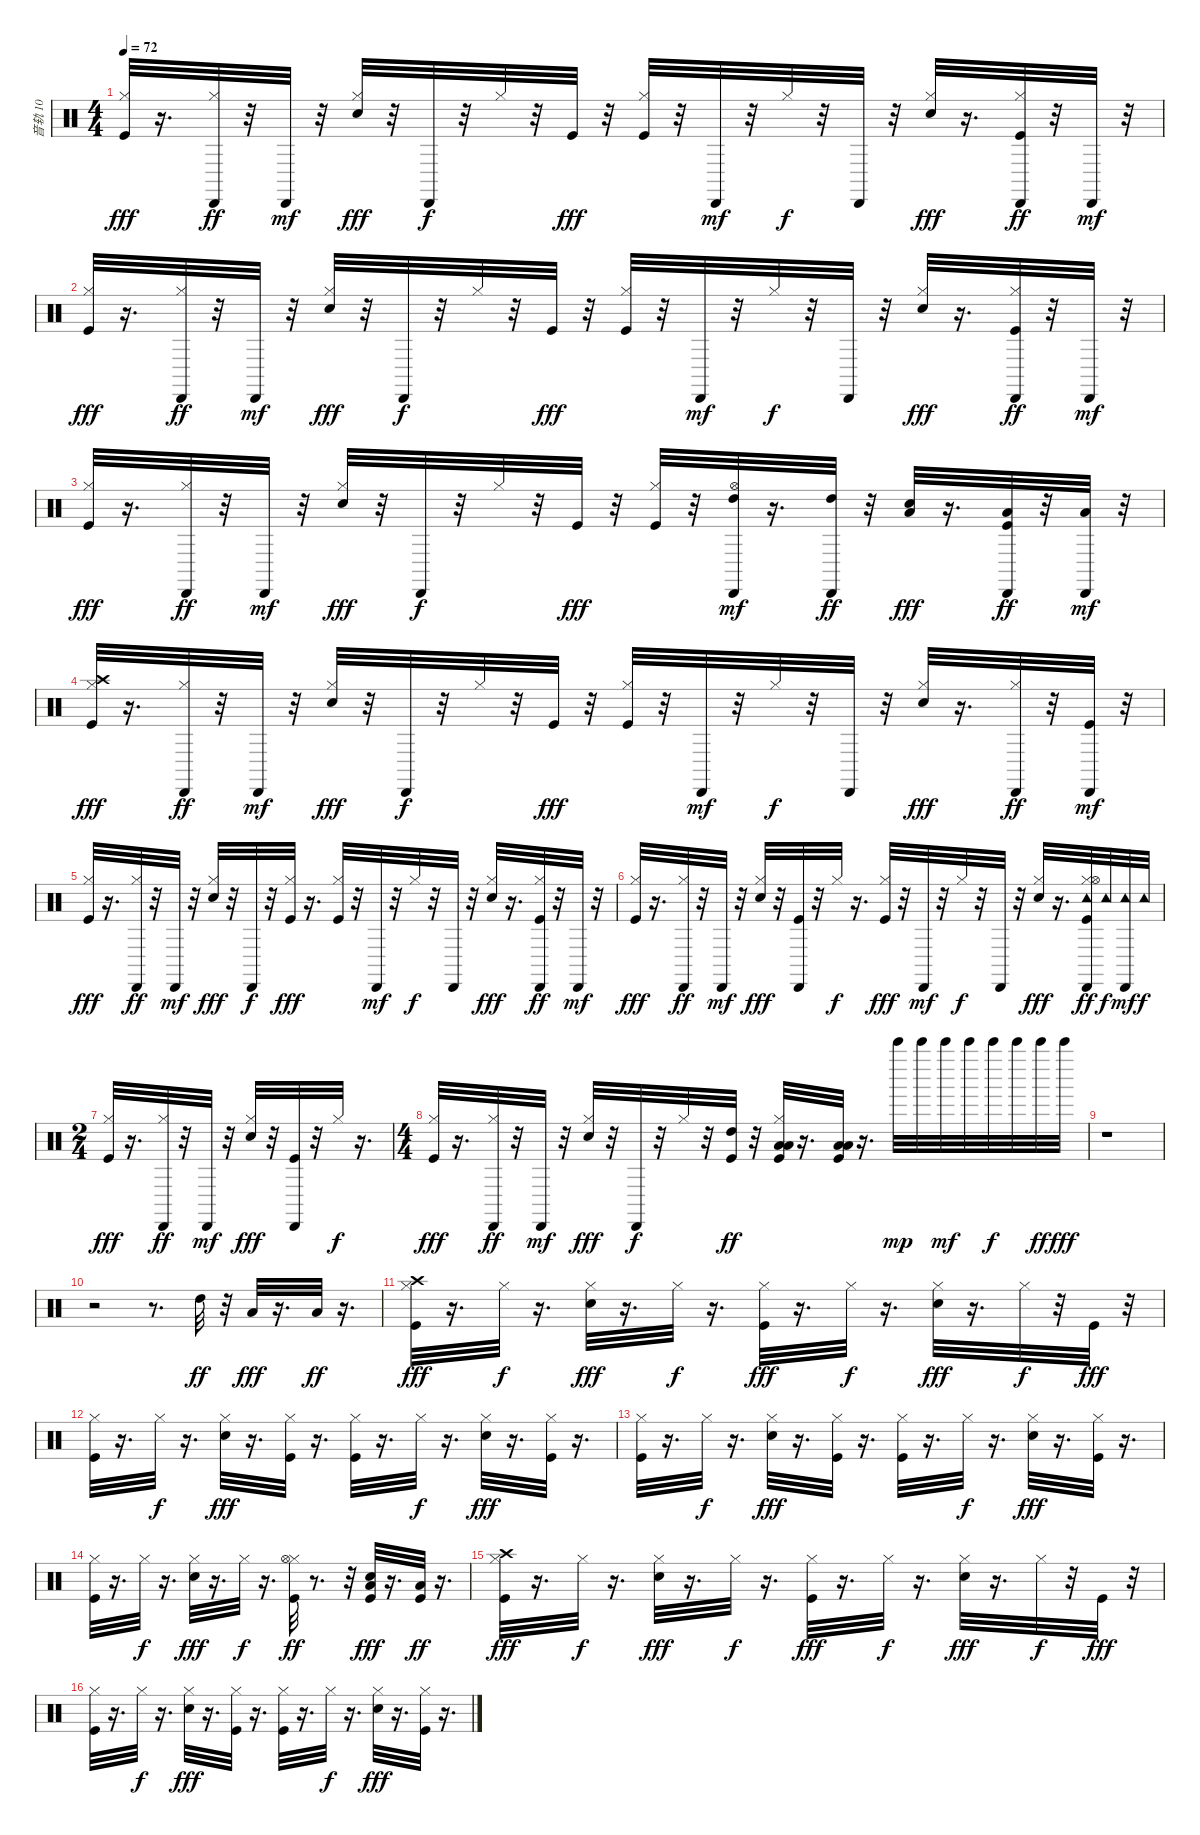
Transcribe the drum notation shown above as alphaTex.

\track ("音轨 10" "音轨 10") {instrument percussion}
\staff {score}
\articulation defaults
\ts (4 4)
\tempo 72
\clef neutral
\ks c
("Kick (hit)" "Hi-Hat (closed)").32{dy fff} r.16{d} ("Hi-Hat (closed)" "Cabasa (hit)").32{dy ff} r.32 "Cabasa (hit)".32{dy mf} r.32 ("Electric Snare (hit)" "Hi-Hat (closed)").32{dy fff} r.32 "Cabasa (hit)".32{dy f} r.32 "Hi-Hat (closed)".32 r.32 "Kick (hit)".32{dy fff} r.32 ("Kick (hit)" "Hi-Hat (closed)").32 r.32 "Cabasa (hit)".32{dy mf} r.32 "Hi-Hat (closed)".32{dy f} r.32 "Cabasa (hit)".32 r.32 ("Electric Snare (hit)" "Hi-Hat (closed)").32{dy fff} r.16{d} ("Kick (hit)" "Hi-Hat (closed)" "Cabasa (hit)").32{dy ff} r.32 "Cabasa (hit)".32{dy mf} r.32 |
("Kick (hit)" "Hi-Hat (closed)").32{dy fff} r.16{d} ("Hi-Hat (closed)" "Cabasa (hit)").32{dy ff} r.32 "Cabasa (hit)".32{dy mf} r.32 ("Electric Snare (hit)" "Hi-Hat (closed)").32{dy fff} r.32 "Cabasa (hit)".32{dy f} r.32 "Hi-Hat (closed)".32 r.32 "Kick (hit)".32{dy fff} r.32 ("Kick (hit)" "Hi-Hat (closed)").32 r.32 "Cabasa (hit)".32{dy mf} r.32 "Hi-Hat (closed)".32{dy f} r.32 "Cabasa (hit)".32 r.32 ("Electric Snare (hit)" "Hi-Hat (closed)").32{dy fff} r.16{d} ("Kick (hit)" "Hi-Hat (closed)" "Cabasa (hit)").32{dy ff} r.32 "Cabasa (hit)".32{dy mf} r.32 |
("Kick (hit)" "Hi-Hat (closed)").32{dy fff} r.16{d} ("Hi-Hat (closed)" "Cabasa (hit)").32{dy ff} r.32 "Cabasa (hit)".32{dy mf} r.32 ("Electric Snare (hit)" "Hi-Hat (closed)").32{dy fff} r.32 "Cabasa (hit)".32{dy f} r.32 "Hi-Hat (closed)".32 r.32 "Kick (hit)".32{dy fff} r.32 ("Kick (hit)" "Hi-Hat (closed)").32 r.32 ("Hi-Hat (open)" "High Tom (hit)" "Cabasa (hit)").32{dy mf} r.16{d} ("High Tom (hit)" "Cabasa (hit)").32{dy ff} r.32 ("Electric Snare (hit)" "Low Tom (hit)").32{dy fff} r.16{d} ("Kick (hit)" "Low Tom (hit)" "Cabasa (hit)").32{dy ff} r.32 ("Low Tom (hit)" "Cabasa (hit)").32{dy mf} r.32 |
("Kick (hit)" "Hi-Hat (closed)" "Crash high (hit)").32{dy fff} r.16{d} ("Hi-Hat (closed)" "Cabasa (hit)").32{dy ff} r.32 "Cabasa (hit)".32{dy mf} r.32 ("Electric Snare (hit)" "Hi-Hat (closed)").32{dy fff} r.32 "Cabasa (hit)".32{dy f} r.32 "Hi-Hat (closed)".32 r.32 "Kick (hit)".32{dy fff} r.32 ("Kick (hit)" "Hi-Hat (closed)").32 r.32 "Cabasa (hit)".32{dy mf} r.32 "Hi-Hat (closed)".32{dy f} r.32 "Cabasa (hit)".32 r.32 ("Electric Snare (hit)" "Hi-Hat (closed)").32{dy fff} r.16{d} ("Hi-Hat (closed)" "Cabasa (hit)").32{dy ff} r.32 ("Kick (hit)" "Cabasa (hit)").32{dy mf} r.32 |
("Kick (hit)" "Hi-Hat (closed)").32{dy fff} r.16{d} ("Hi-Hat (closed)" "Cabasa (hit)").32{dy ff} r.32 "Cabasa (hit)".32{dy mf} r.32 ("Electric Snare (hit)" "Hi-Hat (closed)").32{dy fff} r.32 "Cabasa (hit)".32{dy f} r.32 ("Kick (hit)" "Hi-Hat (closed)").32{dy fff} r.16{d} ("Kick (hit)" "Hi-Hat (closed)").32 r.32 "Cabasa (hit)".32{dy mf} r.32 "Hi-Hat (closed)".32{dy f} r.32 "Cabasa (hit)".32 r.32 ("Electric Snare (hit)" "Hi-Hat (closed)").32{dy fff} r.16{d} ("Kick (hit)" "Hi-Hat (closed)" "Cabasa (hit)").32{dy ff} r.32 "Cabasa (hit)".32{dy mf} r.32 |
("Kick (hit)" "Hi-Hat (closed)").32{dy fff} r.16{d} ("Hi-Hat (closed)" "Cabasa (hit)").32{dy ff} r.32 "Cabasa (hit)".32{dy mf} r.32 ("Electric Snare (hit)" "Hi-Hat (closed)").32{dy fff} r.32 ("Kick (hit)" "Cabasa (hit)").32 r.32 "Hi-Hat (closed)".32{dy f} r.16{d} ("Kick (hit)" "Hi-Hat (closed)").32{dy fff} r.32 "Cabasa (hit)".32{dy mf} r.32 "Hi-Hat (closed)".32{dy f} r.32 "Cabasa (hit)".32 r.32 ("Electric Snare (hit)" "Hi-Hat (closed)").32{dy fff} r.16{d} ("Kick (hit)" "Hi-Hat (closed)" "Hi-Hat (open)" "Tambourine (hit)" "Cabasa (hit)").32{dy ff} "Tambourine (hit)".32{dy f} ("Tambourine (hit)" "Cabasa (hit)").32{dy mf} "Tambourine (hit)".32{dy f} |
\ts (2 4)
("Kick (hit)" "Hi-Hat (closed)").32{dy fff} r.16{d} ("Hi-Hat (closed)" "Cabasa (hit)").32{dy ff} r.32 "Cabasa (hit)".32{dy mf} r.32 ("Electric Snare (hit)" "Hi-Hat (closed)").32{dy fff} r.32 ("Kick (hit)" "Cabasa (hit)").32 r.32 "Hi-Hat (closed)".32{dy f} r.16{d} |
\ts (4 4)
("Kick (hit)" "Hi-Hat (closed)").32{dy fff} r.16{d} ("Hi-Hat (closed)" "Cabasa (hit)").32{dy ff} r.32 "Cabasa (hit)".32{dy mf} r.32 ("Electric Snare (hit)" "Hi-Hat (closed)").32{dy fff} r.32 "Cabasa (hit)".32{dy f} r.32 "Hi-Hat (closed)".32 r.32 ("Kick (hit)" "High Tom (hit)").32{dy ff} r.32 ("Kick (hit)" "Hi-Hat (closed)" "Low Tom (hit)" "Low Floor Tom (hit)").32 r.16{d} ("Kick (hit)" "Low Tom (hit)" "Low Floor Tom (hit)").32 r.16{d} "Bell Tree (hit)".32{dy mp} "Bell Tree (hit)".32 "Bell Tree (hit)".32{dy mf} "Bell Tree (hit)".32 "Bell Tree (hit)".32{dy f} "Bell Tree (hit)".32 "Bell Tree (hit)".32{dy ff} "Bell Tree (hit)".32{dy fff} |
r.1 |
r.2 r.8{d} "High Tom (hit)".32{dy ff} r.32 "Low Tom (hit)".32{dy fff} r.16{d} "Low Tom (hit)".32{dy ff} r.16{d} |
("Kick (hit)" "Hi-Hat (closed)" "Crash high (hit)").32{dy fff} r.16{d} "Hi-Hat (closed)".32{dy f} r.16{d} ("Electric Snare (hit)" "Hi-Hat (closed)").32{dy fff} r.16{d} "Hi-Hat (closed)".32{dy f} r.16{d} ("Kick (hit)" "Hi-Hat (closed)").32{dy fff} r.16{d} "Hi-Hat (closed)".32{dy f} r.16{d} ("Electric Snare (hit)" "Hi-Hat (closed)").32{dy fff} r.16{d} "Hi-Hat (closed)".32{dy f} r.32 "Kick (hit)".32{dy fff} r.32 |
("Kick (hit)" "Hi-Hat (closed)").32 r.16{d} "Hi-Hat (closed)".32{dy f} r.16{d} ("Electric Snare (hit)" "Hi-Hat (closed)").32{dy fff} r.16{d} ("Kick (hit)" "Hi-Hat (closed)").32 r.16{d} ("Kick (hit)" "Hi-Hat (closed)").32 r.16{d} "Hi-Hat (closed)".32{dy f} r.16{d} ("Electric Snare (hit)" "Hi-Hat (closed)").32{dy fff} r.16{d} ("Kick (hit)" "Hi-Hat (closed)").32 r.16{d} |
("Kick (hit)" "Hi-Hat (closed)").32 r.16{d} "Hi-Hat (closed)".32{dy f} r.16{d} ("Electric Snare (hit)" "Hi-Hat (closed)").32{dy fff} r.16{d} ("Kick (hit)" "Hi-Hat (closed)").32 r.16{d} ("Kick (hit)" "Hi-Hat (closed)").32 r.16{d} "Hi-Hat (closed)".32{dy f} r.16{d} ("Electric Snare (hit)" "Hi-Hat (closed)").32{dy fff} r.16{d} ("Kick (hit)" "Hi-Hat (closed)").32 r.16{d} |
("Kick (hit)" "Hi-Hat (closed)").32 r.16{d} "Hi-Hat (closed)".32{dy f} r.16{d} ("Electric Snare (hit)" "Hi-Hat (closed)").32{dy fff} r.16{d} "Hi-Hat (closed)".32{dy f} r.16{d} ("Kick (hit)" "Hi-Hat (closed)" "Hi-Hat (open)").32{dy ff} r.8{d} r.32 ("Kick (hit)" "Electric Snare (hit)" "Low Tom (hit)").32{dy fff} r.16{d} ("Kick (hit)" "Low Tom (hit)").32{dy ff} r.16{d} |
("Kick (hit)" "Hi-Hat (closed)" "Crash high (hit)").32{dy fff} r.16{d} "Hi-Hat (closed)".32{dy f} r.16{d} ("Electric Snare (hit)" "Hi-Hat (closed)").32{dy fff} r.16{d} "Hi-Hat (closed)".32{dy f} r.16{d} ("Kick (hit)" "Hi-Hat (closed)").32{dy fff} r.16{d} "Hi-Hat (closed)".32{dy f} r.16{d} ("Electric Snare (hit)" "Hi-Hat (closed)").32{dy fff} r.16{d} "Hi-Hat (closed)".32{dy f} r.32 "Kick (hit)".32{dy fff} r.32 |
("Kick (hit)" "Hi-Hat (closed)").32 r.16{d} "Hi-Hat (closed)".32{dy f} r.16{d} ("Electric Snare (hit)" "Hi-Hat (closed)").32{dy fff} r.16{d} ("Kick (hit)" "Hi-Hat (closed)").32 r.16{d} ("Kick (hit)" "Hi-Hat (closed)").32 r.16{d} "Hi-Hat (closed)".32{dy f} r.16{d} ("Electric Snare (hit)" "Hi-Hat (closed)").32{dy fff} r.16{d} ("Kick (hit)" "Hi-Hat (closed)").32 r.16{d}
